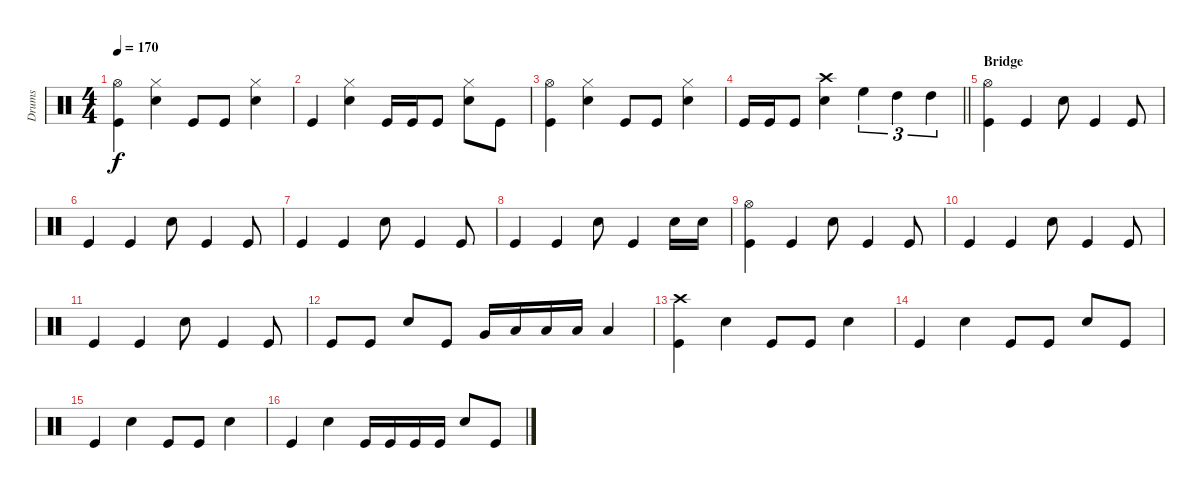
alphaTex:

\track ("Drums" "Drums") {instrument percussion}
\staff {score}
\articulation defaults
\ts (4 4)
\tempo 170
\clef neutral
\ks c
("Hi-Hat (open)" "Kick (hit)").4{dy f} ("Hi-Hat (closed)" "Snare (hit) 2").4 "Kick (hit)".8 "Kick (hit)".8 ("Hi-Hat (closed)" "Snare (hit) 2").4 |
"Kick (hit)".4 ("Hi-Hat (closed)" "Snare (hit) 2").4 "Kick (hit)".16 "Kick (hit)".16 "Kick (hit)".8 ("Hi-Hat (closed)" "Snare (hit) 2").8 "Kick (hit)".8 |
("Hi-Hat (open)" "Kick (hit)").4 ("Hi-Hat (closed)" "Snare (hit) 2").4 "Kick (hit)".8 "Kick (hit)".8 ("Hi-Hat (closed)" "Snare (hit) 2").4 |
\barLineRight lightlight "Kick (hit)".16 "Kick (hit)".16 "Kick (hit)".8
("Crash high (hit)" "Snare (hit) 2").4 "High Floor Tom (hit)".4{tu (3 2)} "High Tom (hit)".4{tu (3 2)} "High Tom (hit)".4{tu (3 2)} |
\section ("" "Bridge")
("Hi-Hat (open)" "Kick (hit)").4 "Kick (hit)".4 "Snare (hit) 2".8 "Kick (hit)".4 "Kick (hit)".8 |
"Kick (hit)".4 "Kick (hit)".4 "Snare (hit) 2".8 "Kick (hit)".4 "Kick (hit)".8 |
"Kick (hit)".4 "Kick (hit)".4 "Snare (hit) 2".8 "Kick (hit)".4 "Kick (hit)".8 |
"Kick (hit)".4 "Kick (hit)".4 "Snare (hit) 2".8 "Kick (hit)".4 "Snare (hit) 2".16 "Snare (hit) 2".16 |
("Hi-Hat (open)" "Kick (hit)").4 "Kick (hit)".4 "Snare (hit) 2".8 "Kick (hit)".4 "Kick (hit)".8 |
"Kick (hit)".4 "Kick (hit)".4 "Snare (hit) 2".8 "Kick (hit)".4 "Kick (hit)".8 |
"Kick (hit)".4 "Kick (hit)".4 "Snare (hit) 2".8 "Kick (hit)".4 "Kick (hit)".8 |
"Kick (hit)".8 "Kick (hit)".8 "Snare (hit) 2".8 "Kick (hit)".8 "Very Low Tom (hit)".16 "Low Tom (hit)".16 "Low Tom (hit)".16 "Low Tom (hit)".16 "Low Tom (hit)".4 |
("Crash high (hit)" "Kick (hit)").4 "Snare (hit) 2".4 "Kick (hit)".8 "Kick (hit)".8 "Snare (hit) 2".4 |
"Kick (hit)".4 "Snare (hit) 2".4 "Kick (hit)".8 "Kick (hit)".8 "Snare (hit) 2".8 "Kick (hit)".8 |
"Kick (hit)".4 "Snare (hit) 2".4 "Kick (hit)".8 "Kick (hit)".8 "Snare (hit) 2".4 |
"Kick (hit)".4 "Snare (hit) 2".4 "Kick (hit)".16 "Kick (hit)".16 "Kick (hit)".16 "Kick (hit)".16 "Snare (hit) 2".8 "Kick (hit)".8
